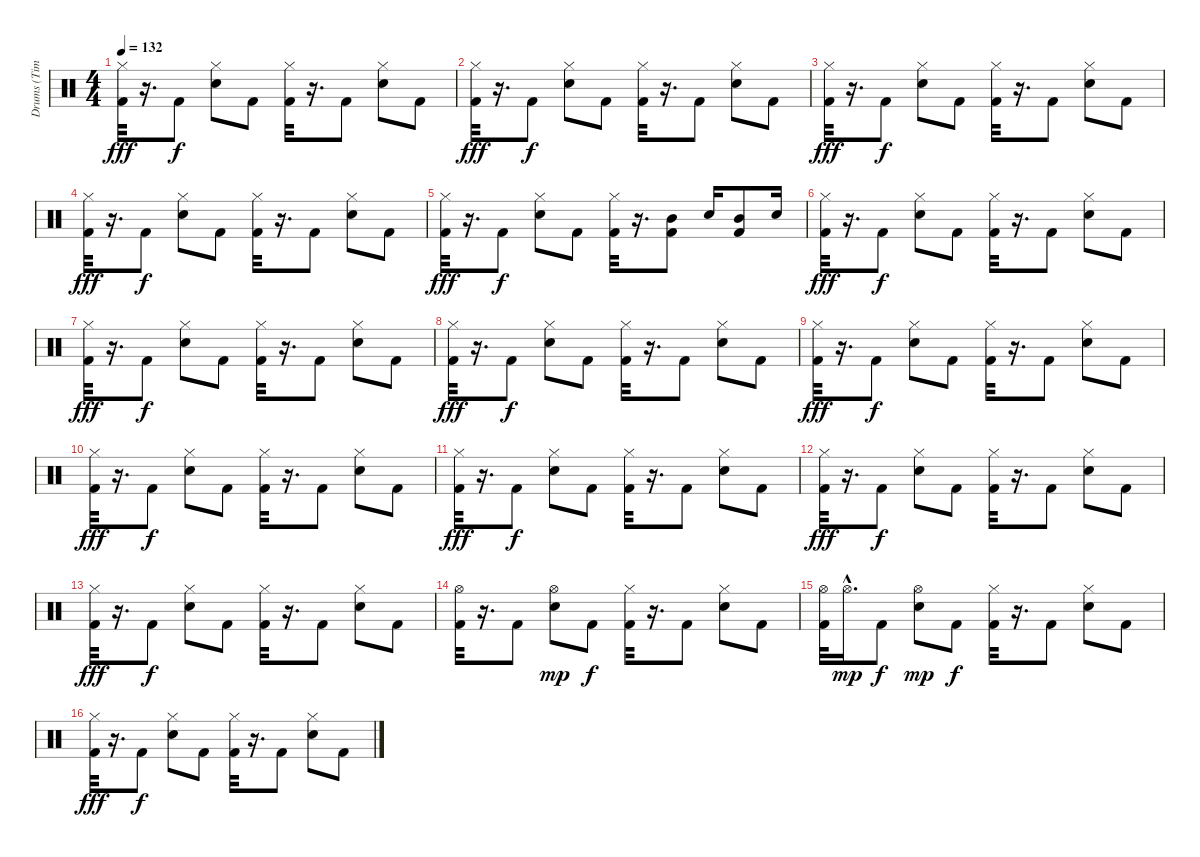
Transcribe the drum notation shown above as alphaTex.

\track ("Drums (Tim Alexander)" "Drums (Tim") {instrument percussion}
\staff {score}
\articulation defaults
\ts (4 4)
\tempo 132
\clef neutral
\ks c
("Hi-Hat (closed)" "Kick (hit) 2").32{dy fff} r.16{d} "Kick (hit) 2".8{dy f} ("Hi-Hat (closed)" "Snare (hit) 2").8 "Kick (hit) 2".8 ("Hi-Hat (closed)" "Kick (hit) 2").32 r.16{d} "Kick (hit) 2".8 ("Hi-Hat (closed)" "Snare (hit) 2").8 "Kick (hit) 2".8 |
("Hi-Hat (closed)" "Kick (hit) 2").32{dy fff} r.16{d} "Kick (hit) 2".8{dy f} ("Hi-Hat (closed)" "Snare (hit) 2").8 "Kick (hit) 2".8 ("Hi-Hat (closed)" "Kick (hit) 2").32 r.16{d} "Kick (hit) 2".8 ("Hi-Hat (closed)" "Snare (hit) 2").8 "Kick (hit) 2".8 |
("Hi-Hat (closed)" "Kick (hit) 2").32{dy fff} r.16{d} "Kick (hit) 2".8{dy f} ("Hi-Hat (closed)" "Snare (hit) 2").8 "Kick (hit) 2".8 ("Hi-Hat (closed)" "Kick (hit) 2").32 r.16{d} "Kick (hit) 2".8 ("Hi-Hat (closed)" "Snare (hit) 2").8 "Kick (hit) 2".8 |
("Hi-Hat (closed)" "Kick (hit) 2").32{dy fff} r.16{d} "Kick (hit) 2".8{dy f} ("Hi-Hat (closed)" "Snare (hit) 2").8 "Kick (hit) 2".8 ("Hi-Hat (closed)" "Kick (hit) 2").32 r.16{d} "Kick (hit) 2".8 ("Hi-Hat (closed)" "Snare (hit) 2").8 "Kick (hit) 2".8 |
("Hi-Hat (closed)" "Kick (hit) 2").32{dy fff} r.16{d} "Kick (hit) 2".8{dy f} ("Hi-Hat (closed)" "Snare (hit) 2").8 "Kick (hit) 2".8 ("Hi-Hat (closed)" "Kick (hit) 2").32 r.16{d} ("Mid Tom (hit)" "Kick (hit) 2").8 "Electric Snare (hit)".16 ("Mid Tom (hit)" "Kick (hit) 2").8 "Electric Snare (hit)".16 |
("Hi-Hat (closed)" "Kick (hit) 2").32{dy fff} r.16{d} "Kick (hit) 2".8{dy f} ("Hi-Hat (closed)" "Snare (hit) 2").8 "Kick (hit) 2".8 ("Hi-Hat (closed)" "Kick (hit) 2").32 r.16{d} "Kick (hit) 2".8 ("Hi-Hat (closed)" "Snare (hit) 2").8 "Kick (hit) 2".8 |
("Hi-Hat (closed)" "Kick (hit) 2").32{dy fff} r.16{d} "Kick (hit) 2".8{dy f} ("Hi-Hat (closed)" "Snare (hit) 2").8 "Kick (hit) 2".8 ("Hi-Hat (closed)" "Kick (hit) 2").32 r.16{d} "Kick (hit) 2".8 ("Hi-Hat (closed)" "Snare (hit) 2").8 "Kick (hit) 2".8 |
("Hi-Hat (closed)" "Kick (hit) 2").32{dy fff} r.16{d} "Kick (hit) 2".8{dy f} ("Hi-Hat (closed)" "Snare (hit) 2").8 "Kick (hit) 2".8 ("Hi-Hat (closed)" "Kick (hit) 2").32 r.16{d} "Kick (hit) 2".8 ("Hi-Hat (closed)" "Snare (hit) 2").8 "Kick (hit) 2".8 |
("Hi-Hat (closed)" "Kick (hit) 2").32{dy fff} r.16{d} "Kick (hit) 2".8{dy f} ("Hi-Hat (closed)" "Snare (hit) 2").8 "Kick (hit) 2".8 ("Hi-Hat (closed)" "Kick (hit) 2").32 r.16{d} "Kick (hit) 2".8 ("Hi-Hat (closed)" "Snare (hit) 2").8 "Kick (hit) 2".8 |
("Hi-Hat (closed)" "Kick (hit) 2").32{dy fff} r.16{d} "Kick (hit) 2".8{dy f} ("Hi-Hat (closed)" "Snare (hit) 2").8 "Kick (hit) 2".8 ("Hi-Hat (closed)" "Kick (hit) 2").32 r.16{d} "Kick (hit) 2".8 ("Hi-Hat (closed)" "Snare (hit) 2").8 "Kick (hit) 2".8 |
("Hi-Hat (closed)" "Kick (hit) 2").32{dy fff} r.16{d} "Kick (hit) 2".8{dy f} ("Hi-Hat (closed)" "Snare (hit) 2").8 "Kick (hit) 2".8 ("Hi-Hat (closed)" "Kick (hit) 2").32 r.16{d} "Kick (hit) 2".8 ("Hi-Hat (closed)" "Snare (hit) 2").8 "Kick (hit) 2".8 |
("Hi-Hat (closed)" "Kick (hit) 2").32{dy fff} r.16{d} "Kick (hit) 2".8{dy f} ("Hi-Hat (closed)" "Snare (hit) 2").8 "Kick (hit) 2".8 ("Hi-Hat (closed)" "Kick (hit) 2").32 r.16{d} "Kick (hit) 2".8 ("Hi-Hat (closed)" "Snare (hit) 2").8 "Kick (hit) 2".8 |
("Hi-Hat (closed)" "Kick (hit) 2").32{dy fff} r.16{d} "Kick (hit) 2".8{dy f} ("Hi-Hat (closed)" "Snare (hit) 2").8 "Kick (hit) 2".8 ("Hi-Hat (closed)" "Kick (hit) 2").32 r.16{d} "Kick (hit) 2".8 ("Hi-Hat (closed)" "Snare (hit) 2").8 "Kick (hit) 2".8 |
("Hi-Hat (open)" "Kick (hit) 2").32 r.16{d} "Kick (hit) 2".8 ("Hi-Hat (open)" "Snare (hit) 2").8{dy mp} "Kick (hit) 2".8{dy f} ("Hi-Hat (closed)" "Kick (hit) 2").32 r.16{d} "Kick (hit) 2".8 ("Hi-Hat (closed)" "Snare (hit) 2").8 "Kick (hit) 2".8 |
("Hi-Hat (open)" "Kick (hit) 2").32 "Hi-Hat (open)"{hac}.16{d dy mp} "Kick (hit) 2".8{dy f} ("Hi-Hat (open)" "Snare (hit) 2").8{dy mp} "Kick (hit) 2".8{dy f} ("Hi-Hat (closed)" "Kick (hit) 2").32 r.16{d} "Kick (hit) 2".8 ("Hi-Hat (closed)" "Snare (hit) 2").8 "Kick (hit) 2".8 |
("Hi-Hat (closed)" "Kick (hit) 2").32{dy fff} r.16{d} "Kick (hit) 2".8{dy f} ("Hi-Hat (closed)" "Snare (hit) 2").8 "Kick (hit) 2".8 ("Hi-Hat (closed)" "Kick (hit) 2").32 r.16{d} "Kick (hit) 2".8 ("Hi-Hat (closed)" "Snare (hit) 2").8 "Kick (hit) 2".8
